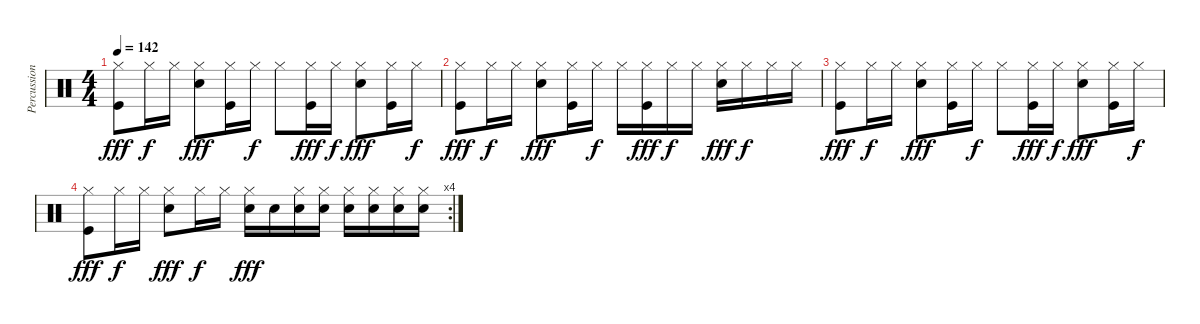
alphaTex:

\track ("Percussions" "Percussion") {instrument percussion}
\staff {score}
\articulation defaults
\ts (4 4)
\tempo 142
\clef neutral
\ks c
("Hi-Hat (closed)" "Kick (hit)").8{dy fff} "Hi-Hat (closed)".16{dy f} "Hi-Hat (closed)".16 ("Hi-Hat (closed)" "Electric Snare (hit)").8{dy fff} ("Hi-Hat (closed)" "Kick (hit)").16 "Hi-Hat (closed)".16{dy f} "Hi-Hat (closed)".8 ("Hi-Hat (closed)" "Kick (hit)").16{dy fff} "Hi-Hat (closed)".16{dy f} ("Hi-Hat (closed)" "Electric Snare (hit)").8{dy fff} ("Hi-Hat (closed)" "Kick (hit)").16 "Hi-Hat (closed)".16{dy f} |
("Hi-Hat (closed)" "Kick (hit)").8{dy fff} "Hi-Hat (closed)".16{dy f} "Hi-Hat (closed)".16 ("Hi-Hat (closed)" "Electric Snare (hit)").8{dy fff} ("Hi-Hat (closed)" "Kick (hit)").16 "Hi-Hat (closed)".16{dy f} "Hi-Hat (closed)".16 ("Hi-Hat (closed)" "Kick (hit)").16{dy fff} "Hi-Hat (closed)".16{dy f} "Hi-Hat (closed)".16 ("Hi-Hat (closed)" "Electric Snare (hit)").16{dy fff} "Hi-Hat (closed)".16{dy f} "Hi-Hat (closed)".16 "Hi-Hat (closed)".16 |
("Hi-Hat (closed)" "Kick (hit)").8{dy fff} "Hi-Hat (closed)".16{dy f} "Hi-Hat (closed)".16 ("Hi-Hat (closed)" "Electric Snare (hit)").8{dy fff} ("Hi-Hat (closed)" "Kick (hit)").16 "Hi-Hat (closed)".16{dy f} "Hi-Hat (closed)".8 ("Hi-Hat (closed)" "Kick (hit)").16{dy fff} "Hi-Hat (closed)".16{dy f} ("Hi-Hat (closed)" "Electric Snare (hit)").8{dy fff} ("Hi-Hat (closed)" "Kick (hit)").16 "Hi-Hat (closed)".16{dy f} |
\rc 4
("Hi-Hat (closed)" "Kick (hit)").8{dy fff} "Hi-Hat (closed)".16{dy f} "Hi-Hat (closed)".16 ("Hi-Hat (closed)" "Electric Snare (hit)").8{dy fff} "Hi-Hat (closed)".16{dy f} "Hi-Hat (closed)".16 ("Hi-Hat (closed)" "Electric Snare (hit)").16{dy fff} "Electric Snare (hit)".16 ("Hi-Hat (closed)" "Electric Snare (hit)").16 ("Hi-Hat (closed)" "Electric Snare (hit)").16 ("Hi-Hat (closed)" "Electric Snare (hit)").16 ("Hi-Hat (closed)" "Electric Snare (hit)").16 ("Hi-Hat (closed)" "Electric Snare (hit)").16 ("Hi-Hat (closed)" "Electric Snare (hit)").16
